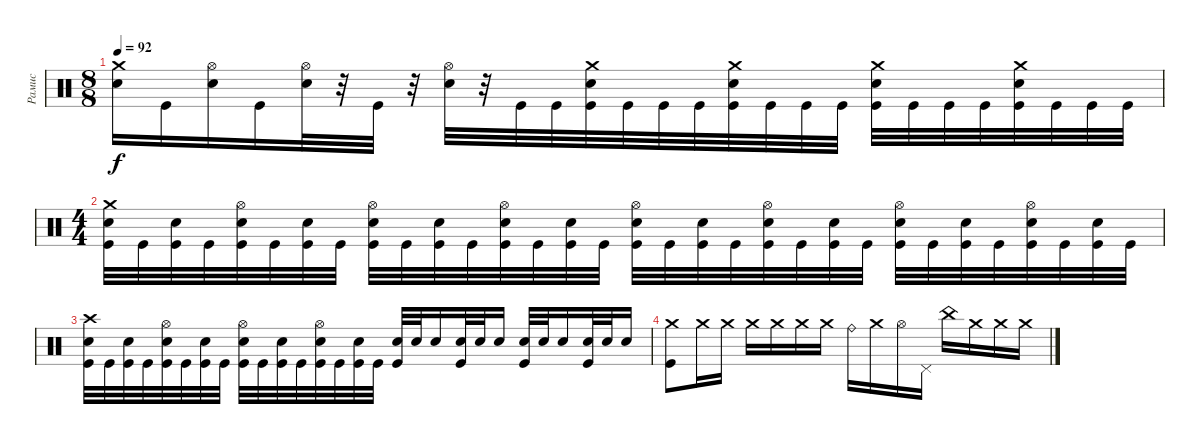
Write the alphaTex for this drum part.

\track ("Рамис" "Рамис") {instrument percussion}
\staff {score}
\articulation defaults
\ts (8 8)
\tempo 92
\clef neutral
\ks c
("Crash medium (hit)" "Electric Snare (hit)").16{dy f} "Kick (hit)".16 ("Hi-Hat (open)" "Electric Snare (hit)").16 "Kick (hit)".16 ("Hi-Hat (open)" "Electric Snare (hit)").32 r.32 "Kick (hit)".32 r.32 ("Hi-Hat (open)" "Electric Snare (hit)").32 r.32 "Kick (hit)".32 "Kick (hit)".32 ("Crash medium (hit)" "Kick (hit)" "Electric Snare (hit)").32 "Kick (hit)".32 "Kick (hit)".32 "Kick (hit)".32 ("Crash medium (hit)" "Kick (hit)" "Electric Snare (hit)").32 "Kick (hit)".32 "Kick (hit)".32 "Kick (hit)".32 ("Crash medium (hit)" "Kick (hit)" "Electric Snare (hit)").32 "Kick (hit)".32 "Kick (hit)".32 "Kick (hit)".32 ("Crash medium (hit)" "Kick (hit)" "Electric Snare (hit)").32 "Kick (hit)".32 "Kick (hit)".32 "Kick (hit)".32 |
\ts (4 4)
("Crash medium (hit)" "Electric Snare (hit)" "Kick (hit)").32 "Kick (hit)".32 ("Electric Snare (hit)" "Kick (hit)").32 "Kick (hit)".32 ("Hi-Hat (open)" "Electric Snare (hit)" "Kick (hit)").32 "Kick (hit)".32 ("Electric Snare (hit)" "Kick (hit)").32 "Kick (hit)".32 ("Hi-Hat (open)" "Electric Snare (hit)" "Kick (hit)").32 "Kick (hit)".32 ("Electric Snare (hit)" "Kick (hit)").32 "Kick (hit)".32 ("Hi-Hat (open)" "Electric Snare (hit)" "Kick (hit)").32 "Kick (hit)".32 ("Electric Snare (hit)" "Kick (hit)").32 "Kick (hit)".32 ("Hi-Hat (open)" "Electric Snare (hit)" "Kick (hit)").32 "Kick (hit)".32 ("Electric Snare (hit)" "Kick (hit)").32 "Kick (hit)".32 ("Hi-Hat (open)" "Electric Snare (hit)" "Kick (hit)").32 "Kick (hit)".32 ("Electric Snare (hit)" "Kick (hit)").32 "Kick (hit)".32 ("Hi-Hat (open)" "Electric Snare (hit)" "Kick (hit)").32 "Kick (hit)".32 ("Electric Snare (hit)" "Kick (hit)").32 "Kick (hit)".32 ("Hi-Hat (open)" "Electric Snare (hit)" "Kick (hit)").32 "Kick (hit)".32 ("Electric Snare (hit)" "Kick (hit)").32 "Kick (hit)".32 |
("Crash high (hit)" "Electric Snare (hit)" "Kick (hit)").32 "Kick (hit)".32 ("Electric Snare (hit)" "Kick (hit)").32 "Kick (hit)".32 ("Hi-Hat (open)" "Electric Snare (hit)" "Kick (hit)").32 "Kick (hit)".32 ("Electric Snare (hit)" "Kick (hit)").32 "Kick (hit)".32 ("Hi-Hat (open)" "Electric Snare (hit)" "Kick (hit)").32 "Kick (hit)".32 ("Electric Snare (hit)" "Kick (hit)").32 "Kick (hit)".32 ("Hi-Hat (open)" "Electric Snare (hit)" "Kick (hit)").32 "Kick (hit)".32 ("Electric Snare (hit)" "Kick (hit)").32 "Kick (hit)".32 ("Kick (hit)" "Electric Snare (hit)").32 "Electric Snare (hit)".32 "Electric Snare (hit)".16 ("Kick (hit)" "Electric Snare (hit)").32 "Electric Snare (hit)".32 "Electric Snare (hit)".16 ("Kick (hit)" "Electric Snare (hit)").32 "Electric Snare (hit)".32 "Electric Snare (hit)".16 ("Kick (hit)" "Electric Snare (hit)").32 "Electric Snare (hit)".32 "Electric Snare (hit)".16 |
("Crash medium (hit)" "Kick (hit)").8 "Crash medium (hit)".16 "Crash medium (hit)".16 "Crash medium (hit)".16 "Crash medium (hit)".16 "Crash medium (hit)".16 "Crash medium (hit)".16 "Ride (bell)".16 "Crash medium (hit)".16 "Hi-Hat (open)".16 "Pedal Hi-Hat (hit)".16 "China (hit)".16 "Crash medium (hit)".16 "Crash medium (hit)".16 "Crash medium (hit)".16
